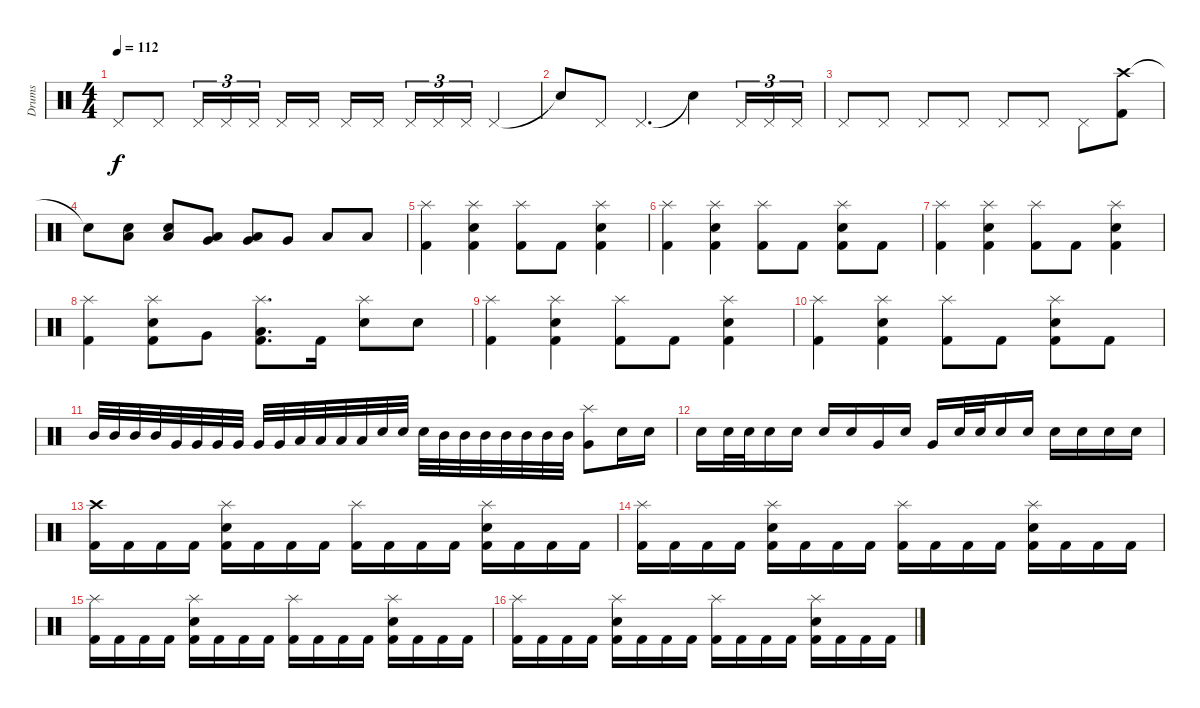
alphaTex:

\track ("Drums" "Drums") {instrument percussion}
\staff {score}
\articulation defaults
\ts (4 4)
\tempo 112
\clef neutral
\ks c "Pedal Hi-Hat (hit)".8{dy f} "Pedal Hi-Hat (hit)".8 "Pedal Hi-Hat (hit)".16{tu (3 2)} "Pedal Hi-Hat (hit)".16{tu (3 2)} "Pedal Hi-Hat (hit)".16{tu (3 2) beam splitsecondary} "Pedal Hi-Hat (hit)".16 "Pedal Hi-Hat (hit)".16 "Pedal Hi-Hat (hit)".16 "Pedal Hi-Hat (hit)".16{beam splitsecondary} "Pedal Hi-Hat (hit)".16{tu (3 2)} "Pedal Hi-Hat (hit)".16{tu (3 2)} "Pedal Hi-Hat (hit)".16{tu (3 2)} "Pedal Hi-Hat (hit)".4
|
"Snare (hit)"{t}.8 "Pedal Hi-Hat (hit)".8 "Pedal Hi-Hat (hit)".4{d} "Snare (hit)"{t}.4 "Pedal Hi-Hat (hit)".16{tu (3 2)} "Pedal Hi-Hat (hit)".16{tu (3 2)} "Pedal Hi-Hat (hit)".16{tu (3 2)} |
"Pedal Hi-Hat (hit)".8 "Pedal Hi-Hat (hit)".8 "Pedal Hi-Hat (hit)".8 "Pedal Hi-Hat (hit)".8 "Pedal Hi-Hat (hit)".8 "Pedal Hi-Hat (hit)".8 "Pedal Hi-Hat (hit)".8 ("Crash high (hit)" "Kick (hit) 2").8 |
"Snare (hit)"{t}.8 ("Low Tom (hit)" "Electric Snare (hit)").8 ("Low Tom (hit)" "Electric Snare (hit)").8 ("Very Low Tom (hit)" "Low Floor Tom (hit)").8 ("Very Low Tom (hit)" "Low Floor Tom (hit)").8 "Very Low Tom (hit)".8 "Low Floor Tom (hit)".8 "Low Floor Tom (hit)".8 |
("Splash (hit)" "Kick (hit) 2").4 ("Splash (hit)" "Electric Snare (hit)" "Kick (hit) 2").4 ("Splash (hit)" "Kick (hit) 2").8 "Kick (hit) 2".8 ("Splash (hit)" "Electric Snare (hit)" "Kick (hit) 2").4 |
("Splash (hit)" "Kick (hit) 2").4 ("Splash (hit)" "Electric Snare (hit)" "Kick (hit) 2").4 ("Splash (hit)" "Kick (hit) 2").8 "Kick (hit) 2".8 ("Splash (hit)" "Electric Snare (hit)" "Kick (hit) 2").8 "Kick (hit) 2".8 |
("Splash (hit)" "Kick (hit) 2").4 ("Splash (hit)" "Electric Snare (hit)" "Kick (hit) 2").4 ("Splash (hit)" "Kick (hit) 2").8 "Kick (hit) 2".8 ("Splash (hit)" "Electric Snare (hit)" "Kick (hit) 2").4 |
("Splash (hit)" "Kick (hit) 2").4 ("Splash (hit)" "Electric Snare (hit)" "Kick (hit) 2").8 "Very Low Tom (hit)".8 ("Splash (hit)" "Low Floor Tom (hit)" "Kick (hit) 2").8{d} "Kick (hit) 2".16 ("Splash (hit)" "Electric Snare (hit)").8 "Electric Snare (hit)".8 |
("Splash (hit)" "Kick (hit) 2").4 ("Splash (hit)" "Electric Snare (hit)" "Kick (hit) 2").4 ("Splash (hit)" "Kick (hit) 2").8 "Kick (hit) 2".8 ("Splash (hit)" "Electric Snare (hit)" "Kick (hit) 2").4 |
("Splash (hit)" "Kick (hit) 2").4 ("Splash (hit)" "Electric Snare (hit)" "Kick (hit) 2").4 ("Splash (hit)" "Kick (hit) 2").8 "Kick (hit) 2".8 ("Splash (hit)" "Electric Snare (hit)" "Kick (hit) 2").8 "Kick (hit) 2".8 |
"Mid Tom (hit)".32 "Mid Tom (hit)".32 "Mid Tom (hit)".32 "Mid Tom (hit)".32 "Very Low Tom (hit)".32 "Very Low Tom (hit)".32 "Very Low Tom (hit)".32 "Very Low Tom (hit)".32 "Very Low Tom (hit)".32 "Very Low Tom (hit)".32 "Low Floor Tom (hit)".32 "Low Floor Tom (hit)".32 "Low Floor Tom (hit)".32 "Low Floor Tom (hit)".32 "Electric Snare (hit)".32 "Electric Snare (hit)".32 "Electric Snare (hit)".32 "Mid Tom (hit)".32 "Mid Tom (hit)".32 "Mid Tom (hit)".32 "Mid Tom (hit)".32 "Mid Tom (hit)".32 "Mid Tom (hit)".32 "Mid Tom (hit)".32 ("Splash (hit)" "Very Low Tom (hit)").8 "Electric Snare (hit)".16 "Electric Snare (hit)".16 |
"Electric Snare (hit)".16 "Electric Snare (hit)".32 "Electric Snare (hit)".32 "Electric Snare (hit)".16 "Electric Snare (hit)".16 "Electric Snare (hit)".16 "Electric Snare (hit)".16 "Very Low Tom (hit)".16 "Electric Snare (hit)".16 "Very Low Tom (hit)".16 "Electric Snare (hit)".32 "Electric Snare (hit)".32 "Electric Snare (hit)".16 "Electric Snare (hit)".16 "Electric Snare (hit)".16 "Electric Snare (hit)".16 "Electric Snare (hit)".16 "Electric Snare (hit)".16 |
("Crash high (hit)" "Kick (hit) 2").16 "Kick (hit) 2".16 "Kick (hit) 2".16 "Kick (hit) 2".16 ("Splash (hit)" "Electric Snare (hit)" "Kick (hit) 2").16 "Kick (hit) 2".16 "Kick (hit) 2".16 "Kick (hit) 2".16 ("Splash (hit)" "Kick (hit) 2").16 "Kick (hit) 2".16 "Kick (hit) 2".16 "Kick (hit) 2".16 ("Splash (hit)" "Electric Snare (hit)" "Kick (hit) 2").16 "Kick (hit) 2".16 "Kick (hit) 2".16 "Kick (hit) 2".16 |
("Splash (hit)" "Kick (hit) 2").16 "Kick (hit) 2".16 "Kick (hit) 2".16 "Kick (hit) 2".16 ("Splash (hit)" "Electric Snare (hit)" "Kick (hit) 2").16 "Kick (hit) 2".16 "Kick (hit) 2".16 "Kick (hit) 2".16 ("Splash (hit)" "Kick (hit) 2").16 "Kick (hit) 2".16 "Kick (hit) 2".16 "Kick (hit) 2".16 ("Splash (hit)" "Electric Snare (hit)" "Kick (hit) 2").16 "Kick (hit) 2".16 "Kick (hit) 2".16 "Kick (hit) 2".16 |
("Splash (hit)" "Kick (hit) 2").16 "Kick (hit) 2".16 "Kick (hit) 2".16 "Kick (hit) 2".16 ("Splash (hit)" "Electric Snare (hit)" "Kick (hit) 2").16 "Kick (hit) 2".16 "Kick (hit) 2".16 "Kick (hit) 2".16 ("Splash (hit)" "Kick (hit) 2").16 "Kick (hit) 2".16 "Kick (hit) 2".16 "Kick (hit) 2".16 ("Splash (hit)" "Electric Snare (hit)" "Kick (hit) 2").16 "Kick (hit) 2".16 "Kick (hit) 2".16 "Kick (hit) 2".16 |
("Splash (hit)" "Kick (hit) 2").16 "Kick (hit) 2".16 "Kick (hit) 2".16 "Kick (hit) 2".16 ("Splash (hit)" "Electric Snare (hit)" "Kick (hit) 2").16 "Kick (hit) 2".16 "Kick (hit) 2".16 "Kick (hit) 2".16 ("Splash (hit)" "Kick (hit) 2").16 "Kick (hit) 2".16 "Kick (hit) 2".16 "Kick (hit) 2".16 ("Splash (hit)" "Electric Snare (hit)" "Kick (hit) 2").16 "Kick (hit) 2".16 "Kick (hit) 2".16 "Kick (hit) 2".16
